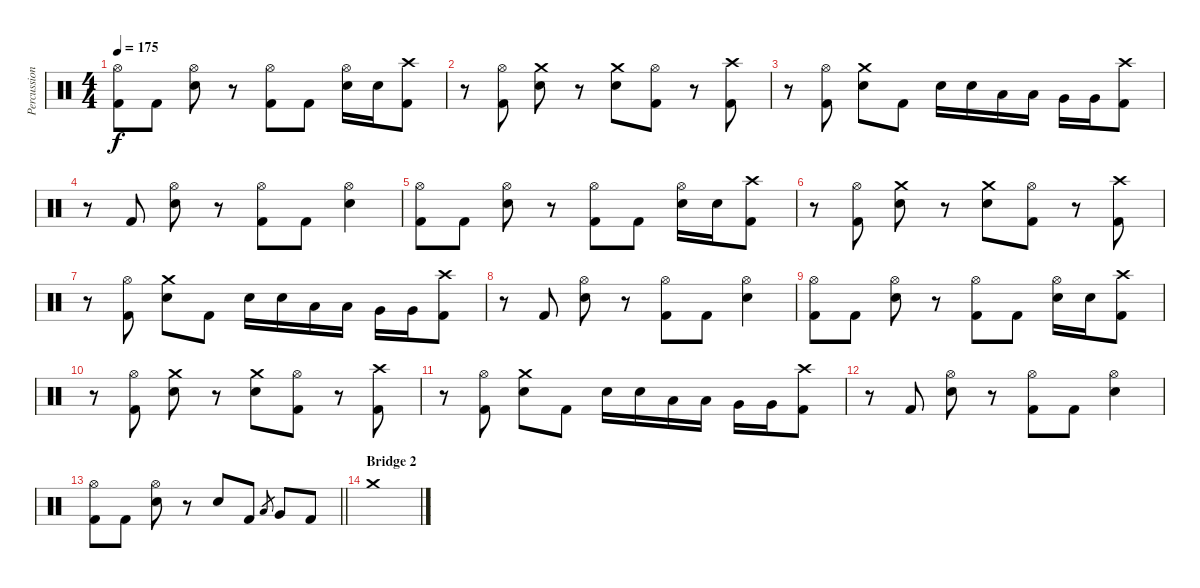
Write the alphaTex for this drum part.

\track ("Percussion" "Percussion") {instrument percussion}
\staff {score}
\articulation defaults
\ts (4 4)
\tempo 175
\clef neutral
\ks c
("Hi-Hat (open)" "Kick (hit) 2").8{dy f} "Kick (hit) 2".8 ("Hi-Hat (open)" "Electric Snare (hit)").8 r.8 ("Hi-Hat (open)" "Kick (hit) 2").8 "Kick (hit) 2".8 ("Hi-Hat (open)" "Electric Snare (hit)").16 "Electric Snare (hit)".16 ("Crash high (hit)" "Kick (hit) 2").8 |
r.8 ("Hi-Hat (open)" "Kick (hit) 2").8 ("Crash medium (hit)" "Electric Snare (hit)").8 r.8 ("Crash medium (hit)" "Electric Snare (hit)").8 ("Hi-Hat (open)" "Kick (hit) 2").8 r.8 ("Crash high (hit)" "Kick (hit) 2").8 |
r.8 ("Hi-Hat (open)" "Kick (hit) 2").8 ("Crash medium (hit)" "Electric Snare (hit)").8 "Kick (hit) 2".8 "Electric Snare (hit)".16 "Electric Snare (hit)".16 "Low Tom (hit)".16 "Low Tom (hit)".16 "Very Low Tom (hit)".16 "Very Low Tom (hit)".16 ("Crash high (hit)" "Kick (hit) 2").8 |
r.8 "Kick (hit) 2".8 ("Hi-Hat (open)" "Electric Snare (hit)").8 r.8 ("Hi-Hat (open)" "Kick (hit) 2").8 "Kick (hit) 2".8 ("Hi-Hat (open)" "Electric Snare (hit)").4 |
("Hi-Hat (open)" "Kick (hit) 2").8 "Kick (hit) 2".8 ("Hi-Hat (open)" "Electric Snare (hit)").8 r.8 ("Hi-Hat (open)" "Kick (hit) 2").8 "Kick (hit) 2".8 ("Hi-Hat (open)" "Electric Snare (hit)").16 "Electric Snare (hit)".16 ("Crash high (hit)" "Kick (hit) 2").8 |
r.8 ("Hi-Hat (open)" "Kick (hit) 2").8 ("Crash medium (hit)" "Electric Snare (hit)").8 r.8 ("Crash medium (hit)" "Electric Snare (hit)").8 ("Hi-Hat (open)" "Kick (hit) 2").8 r.8 ("Crash high (hit)" "Kick (hit) 2").8 |
r.8 ("Hi-Hat (open)" "Kick (hit) 2").8 ("Crash medium (hit)" "Electric Snare (hit)").8 "Kick (hit) 2".8 "Electric Snare (hit)".16 "Electric Snare (hit)".16 "Low Tom (hit)".16 "Low Tom (hit)".16 "Very Low Tom (hit)".16 "Very Low Tom (hit)".16 ("Crash high (hit)" "Kick (hit) 2").8 |
r.8 "Kick (hit) 2".8 ("Hi-Hat (open)" "Electric Snare (hit)").8 r.8 ("Hi-Hat (open)" "Kick (hit) 2").8 "Kick (hit) 2".8 ("Hi-Hat (open)" "Electric Snare (hit)").4 |
("Hi-Hat (open)" "Kick (hit) 2").8 "Kick (hit) 2".8 ("Hi-Hat (open)" "Electric Snare (hit)").8 r.8 ("Hi-Hat (open)" "Kick (hit) 2").8 "Kick (hit) 2".8 ("Hi-Hat (open)" "Electric Snare (hit)").16 "Electric Snare (hit)".16 ("Crash high (hit)" "Kick (hit) 2").8 |
r.8 ("Hi-Hat (open)" "Kick (hit) 2").8 ("Crash medium (hit)" "Electric Snare (hit)").8 r.8 ("Crash medium (hit)" "Electric Snare (hit)").8 ("Hi-Hat (open)" "Kick (hit) 2").8 r.8 ("Crash high (hit)" "Kick (hit) 2").8 |
r.8 ("Hi-Hat (open)" "Kick (hit) 2").8 ("Crash medium (hit)" "Electric Snare (hit)").8 "Kick (hit) 2".8 "Electric Snare (hit)".16 "Electric Snare (hit)".16 "Low Tom (hit)".16 "Low Tom (hit)".16 "Very Low Tom (hit)".16 "Very Low Tom (hit)".16 ("Crash high (hit)" "Kick (hit) 2").8 |
r.8 "Kick (hit) 2".8 ("Hi-Hat (open)" "Electric Snare (hit)").8 r.8 ("Hi-Hat (open)" "Kick (hit) 2").8 "Kick (hit) 2".8 ("Hi-Hat (open)" "Electric Snare (hit)").4 |
\barLineRight lightlight
("Hi-Hat (open)" "Kick (hit) 2").8 "Kick (hit) 2".8 ("Hi-Hat (open)" "Electric Snare (hit)").8 r.8 "Electric Snare (hit)".8 "Kick (hit) 2".8 "Low Floor Tom (hit)"{h}.8{gr} "Very Low Tom (hit)".8 "Kick (hit) 2".8 |
\section ("" "Bridge 2")
"Crash medium (hit)".1
